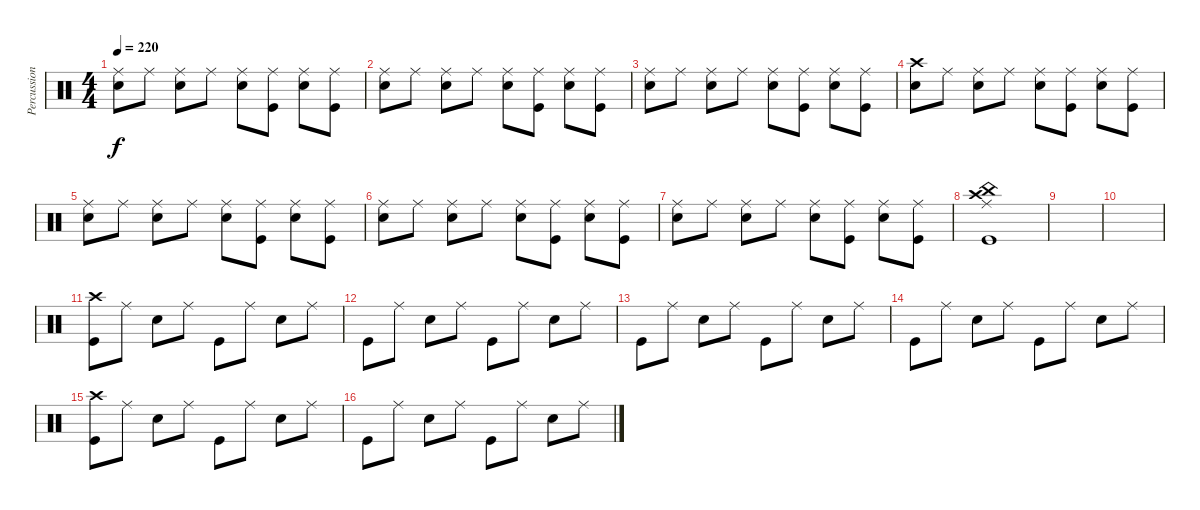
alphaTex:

\track ("Percussions" "Percussion") {instrument percussion}
\staff {score}
\articulation defaults
\ts (4 4)
\tempo 220
\clef neutral
\ks c
("Ride (middle)" "Electric Snare (hit)").8{dy f} "Ride (middle)".8 ("Ride (middle)" "Electric Snare (hit)").8 "Ride (middle)".8 ("Ride (middle)" "Electric Snare (hit)").8 ("Ride (middle)" "Kick (hit)").8 ("Ride (middle)" "Electric Snare (hit)").8 ("Ride (middle)" "Kick (hit)").8 |
("Ride (middle)" "Electric Snare (hit)").8 "Ride (middle)".8 ("Ride (middle)" "Electric Snare (hit)").8 "Ride (middle)".8 ("Ride (middle)" "Electric Snare (hit)").8 ("Ride (middle)" "Kick (hit)").8 ("Ride (middle)" "Electric Snare (hit)").8 ("Ride (middle)" "Kick (hit)").8 |
("Ride (middle)" "Electric Snare (hit)").8 "Ride (middle)".8 ("Ride (middle)" "Electric Snare (hit)").8 "Ride (middle)".8 ("Ride (middle)" "Electric Snare (hit)").8 ("Ride (middle)" "Kick (hit)").8 ("Ride (middle)" "Electric Snare (hit)").8 ("Ride (middle)" "Kick (hit)").8 |
("Crash high (hit)" "Electric Snare (hit)").8 "Ride (middle)".8 ("Ride (middle)" "Electric Snare (hit)").8 "Ride (middle)".8 ("Ride (middle)" "Electric Snare (hit)").8 ("Ride (middle)" "Kick (hit)").8 ("Ride (middle)" "Electric Snare (hit)").8 ("Ride (middle)" "Kick (hit)").8 |
("Ride (middle)" "Electric Snare (hit)").8 "Ride (middle)".8 ("Ride (middle)" "Electric Snare (hit)").8 "Ride (middle)".8 ("Ride (middle)" "Electric Snare (hit)").8 ("Ride (middle)" "Kick (hit)").8 ("Ride (middle)" "Electric Snare (hit)").8 ("Ride (middle)" "Kick (hit)").8 |
("Ride (middle)" "Electric Snare (hit)").8 "Ride (middle)".8 ("Ride (middle)" "Electric Snare (hit)").8 "Ride (middle)".8 ("Ride (middle)" "Electric Snare (hit)").8 ("Ride (middle)" "Kick (hit)").8 ("Ride (middle)" "Electric Snare (hit)").8 ("Ride (middle)" "Kick (hit)").8 |
("Ride (middle)" "Electric Snare (hit)").8 "Ride (middle)".8 ("Ride (middle)" "Electric Snare (hit)").8 "Ride (middle)".8 ("Ride (middle)" "Electric Snare (hit)").8 ("Ride (middle)" "Kick (hit)").8 ("Ride (middle)" "Electric Snare (hit)").8 ("Ride (middle)" "Kick (hit)").8 |
("China (hit)" "Crash high (hit)" "Ride (middle)" "Kick (hit)").1 |
|
|
("Crash high (hit)" "Kick (hit)").8 "Ride (middle)".8 "Electric Snare (hit)".8 "Ride (middle)".8 "Kick (hit)".8 "Ride (middle)".8 "Electric Snare (hit)".8 "Ride (middle)".8 |
"Kick (hit)".8 "Ride (middle)".8 "Electric Snare (hit)".8 "Ride (middle)".8 "Kick (hit)".8 "Ride (middle)".8 "Electric Snare (hit)".8 "Ride (middle)".8 |
"Kick (hit)".8 "Ride (middle)".8 "Electric Snare (hit)".8 "Ride (middle)".8 "Kick (hit)".8 "Ride (middle)".8 "Electric Snare (hit)".8 "Ride (middle)".8 |
"Kick (hit)".8 "Ride (middle)".8 "Electric Snare (hit)".8 "Ride (middle)".8 "Kick (hit)".8 "Ride (middle)".8 "Electric Snare (hit)".8 "Ride (middle)".8 |
("Crash high (hit)" "Kick (hit)").8 "Ride (middle)".8 "Electric Snare (hit)".8 "Ride (middle)".8 "Kick (hit)".8 "Ride (middle)".8 "Electric Snare (hit)".8 "Ride (middle)".8 |
"Kick (hit)".8 "Ride (middle)".8 "Electric Snare (hit)".8 "Ride (middle)".8 "Kick (hit)".8 "Ride (middle)".8 "Electric Snare (hit)".8 "Ride (middle)".8
